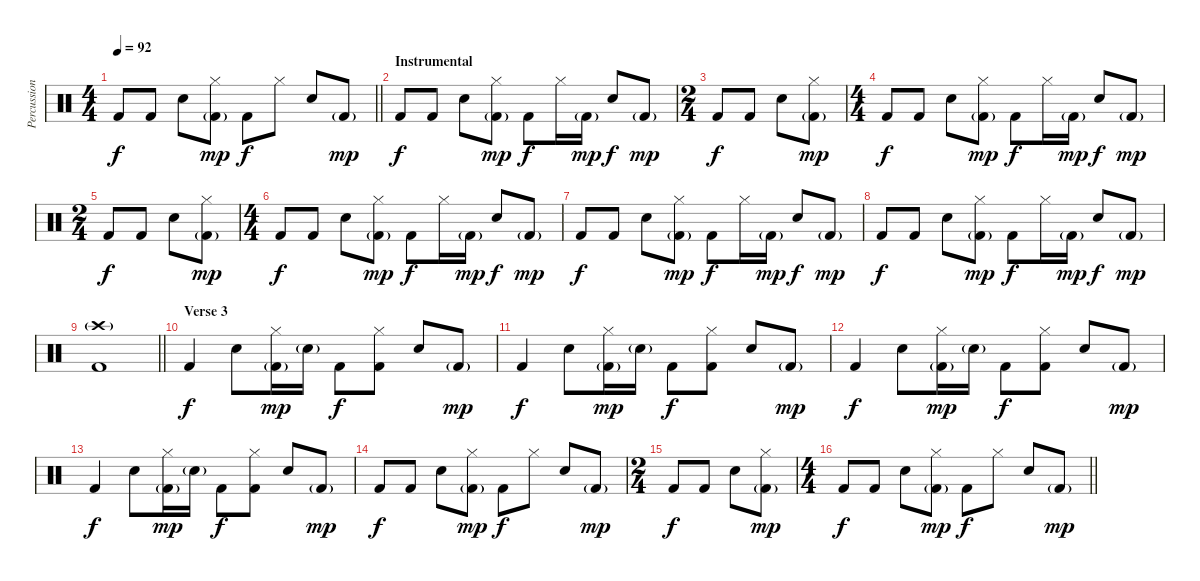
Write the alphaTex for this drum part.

\track ("Percussion" "Percussion") {instrument percussion}
\staff {score}
\articulation defaults
\ts (4 4)
\tempo 92
\clef neutral
\barLineRight lightlight
\ks c "Kick (hit) 2".8{dy f} "Kick (hit) 2".8 "Snare (hit) 2".8
("Hi-Hat (closed)" "Kick (hit) 2"{g}).8{dy mp} "Kick (hit) 2".8{dy f} "Hi-Hat (closed)".8 "Snare (hit) 2".8 "Kick (hit) 2"{g}.8{dy mp} |
\section ("" "Instrumental")
"Kick (hit) 2".8{dy f} "Kick (hit) 2".8 "Snare (hit) 2".8 ("Hi-Hat (closed)" "Kick (hit) 2"{g}).8{dy mp} "Kick (hit) 2".8{dy f} "Hi-Hat (closed)".16 "Kick (hit) 2"{g}.16{dy mp} "Snare (hit) 2".8{dy f} "Kick (hit) 2"{g}.8{dy mp} |
\ts (2 4)
"Kick (hit) 2".8{dy f} "Kick (hit) 2".8 "Snare (hit) 2".8 ("Hi-Hat (closed)" "Kick (hit) 2"{g}).8{dy mp} |
\ts (4 4)
"Kick (hit) 2".8{dy f} "Kick (hit) 2".8 "Snare (hit) 2".8 ("Hi-Hat (closed)" "Kick (hit) 2"{g}).8{dy mp} "Kick (hit) 2".8{dy f} "Hi-Hat (closed)".16 "Kick (hit) 2"{g}.16{dy mp} "Snare (hit) 2".8{dy f} "Kick (hit) 2"{g}.8{dy mp} |
\ts (2 4)
"Kick (hit) 2".8{dy f} "Kick (hit) 2".8 "Snare (hit) 2".8 ("Hi-Hat (closed)" "Kick (hit) 2"{g}).8{dy mp} |
\ts (4 4)
"Kick (hit) 2".8{dy f} "Kick (hit) 2".8 "Snare (hit) 2".8 ("Hi-Hat (closed)" "Kick (hit) 2"{g}).8{dy mp} "Kick (hit) 2".8{dy f} "Hi-Hat (closed)".16 "Kick (hit) 2"{g}.16{dy mp} "Snare (hit) 2".8{dy f} "Kick (hit) 2"{g}.8{dy mp} |
"Kick (hit) 2".8{dy f} "Kick (hit) 2".8 "Snare (hit) 2".8 ("Hi-Hat (closed)" "Kick (hit) 2"{g}).8{dy mp} "Kick (hit) 2".8{dy f} "Hi-Hat (closed)".16 "Kick (hit) 2"{g}.16{dy mp} "Snare (hit) 2".8{dy f} "Kick (hit) 2"{g}.8{dy mp} |
"Kick (hit) 2".8{dy f} "Kick (hit) 2".8 "Snare (hit) 2".8 ("Hi-Hat (closed)" "Kick (hit) 2"{g}).8{dy mp} "Kick (hit) 2".8{dy f} "Hi-Hat (closed)".16 "Kick (hit) 2"{g}.16{dy mp} "Snare (hit) 2".8{dy f} "Kick (hit) 2"{g}.8{dy mp} |
\barLineRight lightlight
("Crash high (hit)"{g} "Kick (hit) 2").1 |
\section ("" "Verse 3")
"Kick (hit) 2".4{dy f} "Snare (hit) 2".8 ("Hi-Hat (closed)" "Kick (hit) 2"{g}).16{dy mp} "Snare (hit) 2"{g}.16 "Kick (hit) 2".8{dy f} ("Hi-Hat (closed)" "Kick (hit) 2").8 "Snare (hit) 2".8 "Kick (hit) 2"{g}.8{dy mp} |
"Kick (hit) 2".4{dy f} "Snare (hit) 2".8 ("Hi-Hat (closed)" "Kick (hit) 2"{g}).16{dy mp} "Snare (hit) 2"{g}.16 "Kick (hit) 2".8{dy f} ("Hi-Hat (closed)" "Kick (hit) 2").8 "Snare (hit) 2".8 "Kick (hit) 2"{g}.8{dy mp} |
"Kick (hit) 2".4{dy f} "Snare (hit) 2".8 ("Hi-Hat (closed)" "Kick (hit) 2"{g}).16{dy mp} "Snare (hit) 2"{g}.16 "Kick (hit) 2".8{dy f} ("Hi-Hat (closed)" "Kick (hit) 2").8 "Snare (hit) 2".8 "Kick (hit) 2"{g}.8{dy mp} |
"Kick (hit) 2".4{dy f} "Snare (hit) 2".8 ("Hi-Hat (closed)" "Kick (hit) 2"{g}).16{dy mp} "Snare (hit) 2"{g}.16 "Kick (hit) 2".8{dy f} ("Hi-Hat (closed)" "Kick (hit) 2").8 "Snare (hit) 2".8 "Kick (hit) 2"{g}.8{dy mp} |
"Kick (hit) 2".8{dy f} "Kick (hit) 2".8 "Snare (hit) 2".8 ("Hi-Hat (closed)" "Kick (hit) 2"{g}).8{dy mp} "Kick (hit) 2".8{dy f} "Hi-Hat (closed)".8 "Snare (hit) 2".8 "Kick (hit) 2"{g}.8{dy mp} |
\ts (2 4)
"Kick (hit) 2".8{dy f} "Kick (hit) 2".8 "Snare (hit) 2".8 ("Hi-Hat (closed)" "Kick (hit) 2"{g}).8{dy mp} |
\ts (4 4)
\barLineRight lightlight "Kick (hit) 2".8{dy f} "Kick (hit) 2".8 "Snare (hit) 2".8
("Hi-Hat (closed)" "Kick (hit) 2"{g}).8{dy mp} "Kick (hit) 2".8{dy f} "Hi-Hat (closed)".8 "Snare (hit) 2".8 "Kick (hit) 2"{g}.8{dy mp}
